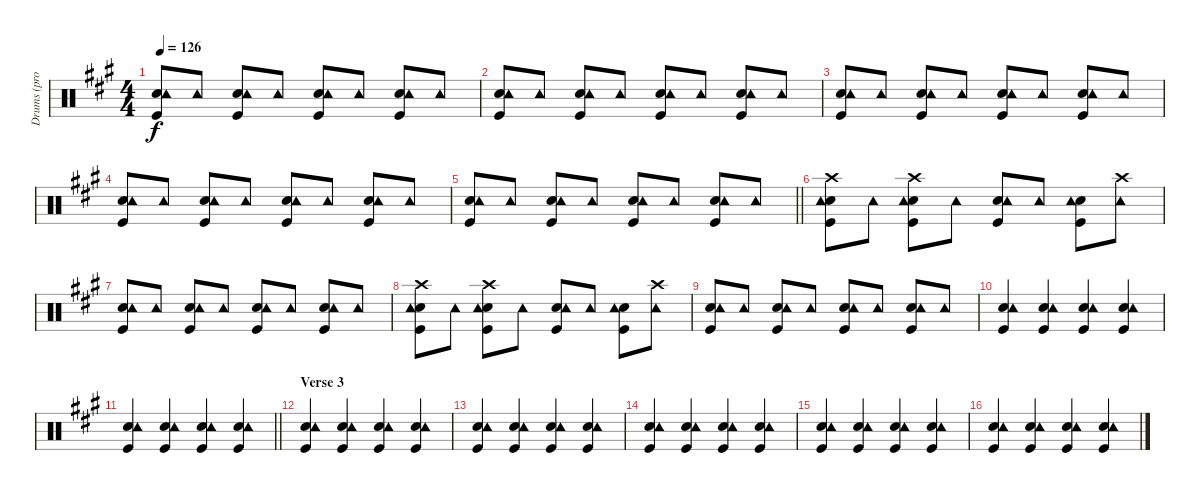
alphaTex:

\track ("Drums (prov.)" "Drums (pro") {instrument percussion}
\staff {score}
\articulation defaults
\ts (4 4)
\tempo 126
\clef neutral
\ks a
("Snare (hit) 2" "Tambourine (hit)" "Kick (hit)").8{dy f} "Tambourine (hit)".8 ("Snare (hit) 2" "Tambourine (hit)" "Kick (hit)").8 "Tambourine (hit)".8 ("Snare (hit) 2" "Tambourine (hit)" "Kick (hit)").8 "Tambourine (hit)".8 ("Snare (hit) 2" "Tambourine (hit)" "Kick (hit)").8 "Tambourine (hit)".8 |
("Snare (hit) 2" "Tambourine (hit)" "Kick (hit)").8 "Tambourine (hit)".8 ("Snare (hit) 2" "Tambourine (hit)" "Kick (hit)").8 "Tambourine (hit)".8 ("Snare (hit) 2" "Tambourine (hit)" "Kick (hit)").8 "Tambourine (hit)".8 ("Snare (hit) 2" "Tambourine (hit)" "Kick (hit)").8 "Tambourine (hit)".8 |
("Snare (hit) 2" "Tambourine (hit)" "Kick (hit)").8 "Tambourine (hit)".8 ("Snare (hit) 2" "Tambourine (hit)" "Kick (hit)").8 "Tambourine (hit)".8 ("Snare (hit) 2" "Tambourine (hit)" "Kick (hit)").8 "Tambourine (hit)".8 ("Snare (hit) 2" "Tambourine (hit)" "Kick (hit)").8 "Tambourine (hit)".8 |
("Snare (hit) 2" "Tambourine (hit)" "Kick (hit)").8 "Tambourine (hit)".8 ("Snare (hit) 2" "Tambourine (hit)" "Kick (hit)").8 "Tambourine (hit)".8 ("Snare (hit) 2" "Tambourine (hit)" "Kick (hit)").8 "Tambourine (hit)".8 ("Snare (hit) 2" "Tambourine (hit)" "Kick (hit)").8 "Tambourine (hit)".8 |
\barLineRight lightlight
("Snare (hit) 2" "Tambourine (hit)" "Kick (hit)").8 "Tambourine (hit)".8 ("Snare (hit) 2" "Tambourine (hit)" "Kick (hit)").8 "Tambourine (hit)".8 ("Snare (hit) 2" "Tambourine (hit)" "Kick (hit)").8 "Tambourine (hit)".8 ("Snare (hit) 2" "Tambourine (hit)" "Kick (hit)").8 "Tambourine (hit)".8 |
("Crash high (hit)" "Snare (hit) 2" "Tambourine (hit)" "Kick (hit)").8 "Tambourine (hit)".8 ("Crash high (hit)" "Snare (hit) 2" "Tambourine (hit)" "Kick (hit)").8 "Tambourine (hit)".8 ("Snare (hit) 2" "Tambourine (hit)" "Kick (hit)").8 "Tambourine (hit)".8 ("Snare (hit) 2" "Tambourine (hit)" "Kick (hit)").8 ("Crash high (hit)" "Tambourine (hit)").8 |
("Snare (hit) 2" "Tambourine (hit)" "Kick (hit)").8 "Tambourine (hit)".8 ("Snare (hit) 2" "Tambourine (hit)" "Kick (hit)").8 "Tambourine (hit)".8 ("Snare (hit) 2" "Tambourine (hit)" "Kick (hit)").8 "Tambourine (hit)".8 ("Snare (hit) 2" "Tambourine (hit)" "Kick (hit)").8 "Tambourine (hit)".8 |
("Crash high (hit)" "Snare (hit) 2" "Tambourine (hit)" "Kick (hit)").8 "Tambourine (hit)".8 ("Crash high (hit)" "Snare (hit) 2" "Tambourine (hit)" "Kick (hit)").8 "Tambourine (hit)".8 ("Snare (hit) 2" "Tambourine (hit)" "Kick (hit)").8 "Tambourine (hit)".8 ("Snare (hit) 2" "Tambourine (hit)" "Kick (hit)").8 ("Crash high (hit)" "Tambourine (hit)").8 |
("Snare (hit) 2" "Tambourine (hit)" "Kick (hit)").8 "Tambourine (hit)".8 ("Snare (hit) 2" "Tambourine (hit)" "Kick (hit)").8 "Tambourine (hit)".8 ("Snare (hit) 2" "Tambourine (hit)" "Kick (hit)").8 "Tambourine (hit)".8 ("Snare (hit) 2" "Tambourine (hit)" "Kick (hit)").8 "Tambourine (hit)".8 |
("Snare (hit) 2" "Tambourine (hit)" "Kick (hit)").4 ("Snare (hit) 2" "Tambourine (hit)" "Kick (hit)").4 ("Snare (hit) 2" "Tambourine (hit)" "Kick (hit)").4 ("Snare (hit) 2" "Tambourine (hit)" "Kick (hit)").4 |
\barLineRight lightlight
("Snare (hit) 2" "Tambourine (hit)" "Kick (hit)").4 ("Snare (hit) 2" "Tambourine (hit)" "Kick (hit)").4 ("Snare (hit) 2" "Tambourine (hit)" "Kick (hit)").4 ("Snare (hit) 2" "Tambourine (hit)" "Kick (hit)").4 |
\section ("" "Verse 3")
("Snare (hit) 2" "Tambourine (hit)" "Kick (hit)").4 ("Snare (hit) 2" "Tambourine (hit)" "Kick (hit)").4 ("Snare (hit) 2" "Tambourine (hit)" "Kick (hit)").4 ("Snare (hit) 2" "Tambourine (hit)" "Kick (hit)").4 |
("Snare (hit) 2" "Tambourine (hit)" "Kick (hit)").4 ("Snare (hit) 2" "Tambourine (hit)" "Kick (hit)").4 ("Snare (hit) 2" "Tambourine (hit)" "Kick (hit)").4 ("Snare (hit) 2" "Tambourine (hit)" "Kick (hit)").4 |
("Snare (hit) 2" "Tambourine (hit)" "Kick (hit)").4 ("Snare (hit) 2" "Tambourine (hit)" "Kick (hit)").4 ("Snare (hit) 2" "Tambourine (hit)" "Kick (hit)").4 ("Snare (hit) 2" "Tambourine (hit)" "Kick (hit)").4 |
("Snare (hit) 2" "Tambourine (hit)" "Kick (hit)").4 ("Snare (hit) 2" "Tambourine (hit)" "Kick (hit)").4 ("Snare (hit) 2" "Tambourine (hit)" "Kick (hit)").4 ("Snare (hit) 2" "Tambourine (hit)" "Kick (hit)").4 |
("Snare (hit) 2" "Tambourine (hit)" "Kick (hit)").4 ("Snare (hit) 2" "Tambourine (hit)" "Kick (hit)").4 ("Snare (hit) 2" "Tambourine (hit)" "Kick (hit)").4 ("Snare (hit) 2" "Tambourine (hit)" "Kick (hit)").4
